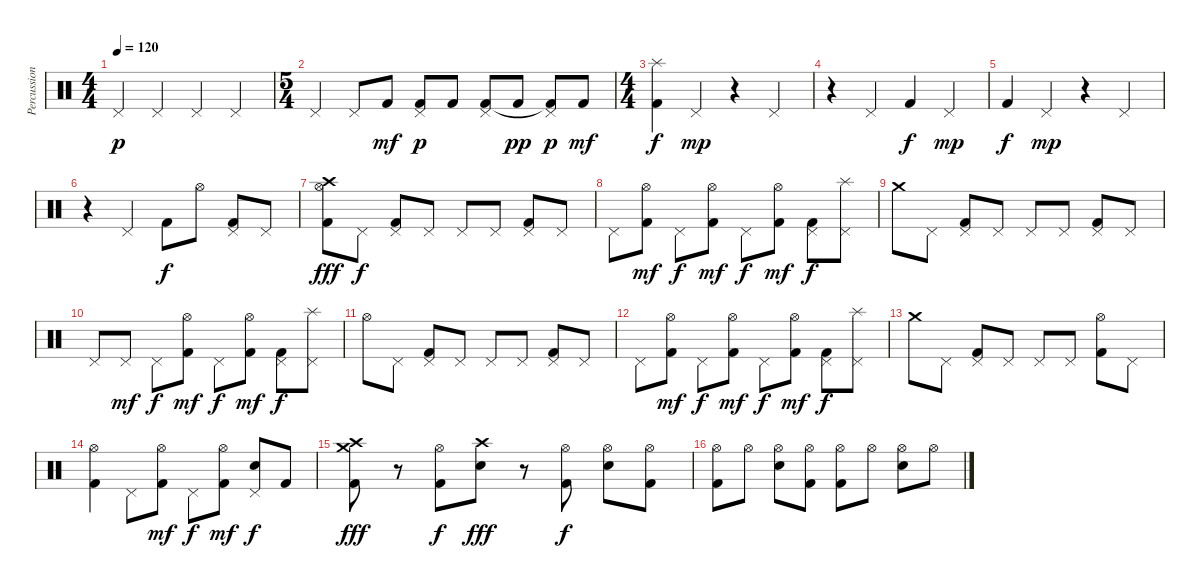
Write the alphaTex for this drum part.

\track ("Percussion" "Percussion") {instrument percussion}
\staff {score}
\articulation defaults
\ts (4 4)
\tempo 120
\clef neutral
\ks c "Pedal Hi-Hat (hit)".4{dy p} "Pedal Hi-Hat (hit)".4 "Pedal Hi-Hat (hit)".4 "Pedal Hi-Hat (hit)".4
|
\ts (5 4)
"Pedal Hi-Hat (hit)".4 "Pedal Hi-Hat (hit)".8 "Kick (hit) 2".8{dy mf} ("Pedal Hi-Hat (hit)" "Kick (hit) 2").8{dy p} "Kick (hit) 2".8 ("Pedal Hi-Hat (hit)" "Kick (hit) 2").8 "Kick (hit) 2".8{dy pp} ("Pedal Hi-Hat (hit)" "Kick (hit) 2"{t}).8{dy p} "Kick (hit) 2".8{dy mf} |
\ts (4 4)
("Splash (hit)" "Kick (hit) 2").4{dy f} "Pedal Hi-Hat (hit)".4{dy mp} r.4 "Pedal Hi-Hat (hit)".4 |
r.4 "Pedal Hi-Hat (hit)".4 "Kick (hit) 2".4{dy f} "Pedal Hi-Hat (hit)".4{dy mp} |
"Kick (hit) 2".4{dy f} "Pedal Hi-Hat (hit)".4{dy mp} r.4 "Pedal Hi-Hat (hit)".4 |
r.4 "Pedal Hi-Hat (hit)".4 "Kick (hit) 2".8{dy f} "Hi-Hat (open)".8 ("Pedal Hi-Hat (hit)" "Kick (hit) 2").8 "Pedal Hi-Hat (hit)".8 |
("Crash high (hit)" "Hi-Hat (open)" "Kick (hit) 2").8{dy fff} "Pedal Hi-Hat (hit)".8{dy f} ("Pedal Hi-Hat (hit)" "Kick (hit) 2").8 "Pedal Hi-Hat (hit)".8 "Pedal Hi-Hat (hit)".8 "Pedal Hi-Hat (hit)".8 ("Pedal Hi-Hat (hit)" "Kick (hit) 2").8 "Pedal Hi-Hat (hit)".8 |
"Pedal Hi-Hat (hit)".8 ("Hi-Hat (open)" "Kick (hit) 2").8{dy mf} "Pedal Hi-Hat (hit)".8{dy f} ("Hi-Hat (open)" "Kick (hit) 2").8{dy mf} "Pedal Hi-Hat (hit)".8{dy f} ("Hi-Hat (open)" "Kick (hit) 2").8{dy mf} ("Pedal Hi-Hat (hit)" "Kick (hit) 2").8{dy f} ("Splash (hit)" "Pedal Hi-Hat (hit)").8 |
"Crash medium (hit)".8 "Pedal Hi-Hat (hit)".8 ("Pedal Hi-Hat (hit)" "Kick (hit) 2").8 "Pedal Hi-Hat (hit)".8 "Pedal Hi-Hat (hit)".8 "Pedal Hi-Hat (hit)".8 ("Pedal Hi-Hat (hit)" "Kick (hit) 2").8 "Pedal Hi-Hat (hit)".8 |
"Pedal Hi-Hat (hit)".8 "Pedal Hi-Hat (hit)".8{dy mf} "Pedal Hi-Hat (hit)".8{dy f} ("Hi-Hat (open)" "Kick (hit) 2").8{dy mf} "Pedal Hi-Hat (hit)".8{dy f} ("Hi-Hat (open)" "Kick (hit) 2").8{dy mf} ("Pedal Hi-Hat (hit)" "Kick (hit) 2").8{dy f} ("Splash (hit)" "Pedal Hi-Hat (hit)").8 |
"Hi-Hat (open)".8 "Pedal Hi-Hat (hit)".8 ("Pedal Hi-Hat (hit)" "Kick (hit) 2").8 "Pedal Hi-Hat (hit)".8 "Pedal Hi-Hat (hit)".8 "Pedal Hi-Hat (hit)".8 ("Pedal Hi-Hat (hit)" "Kick (hit) 2").8 "Pedal Hi-Hat (hit)".8 |
"Pedal Hi-Hat (hit)".8 ("Hi-Hat (open)" "Kick (hit) 2").8{dy mf} "Pedal Hi-Hat (hit)".8{dy f} ("Hi-Hat (open)" "Kick (hit) 2").8{dy mf} "Pedal Hi-Hat (hit)".8{dy f} ("Hi-Hat (open)" "Kick (hit) 2").8{dy mf} ("Pedal Hi-Hat (hit)" "Kick (hit) 2").8{dy f} ("Splash (hit)" "Pedal Hi-Hat (hit)").8 |
"Crash medium (hit)".8 "Pedal Hi-Hat (hit)".8 ("Pedal Hi-Hat (hit)" "Kick (hit) 2").8 "Pedal Hi-Hat (hit)".8 "Pedal Hi-Hat (hit)".8 "Pedal Hi-Hat (hit)".8 ("Hi-Hat (open)" "Kick (hit) 2").8 "Pedal Hi-Hat (hit)".8 |
("Hi-Hat (open)" "Kick (hit) 2").4 "Pedal Hi-Hat (hit)".8 ("Hi-Hat (open)" "Kick (hit) 2").8{dy mf} "Pedal Hi-Hat (hit)".8{dy f} ("Hi-Hat (open)" "Kick (hit) 2").8{dy mf} ("Pedal Hi-Hat (hit)" "Electric Snare (hit)").8{dy f} "Kick (hit) 2".8 |
("Crash high (hit)" "Crash medium (hit)" "Kick (hit) 2").8{dy fff} r.8 ("Hi-Hat (open)" "Kick (hit) 2").8{dy f} ("Crash high (hit)" "Electric Snare (hit)").8{dy fff} r.8 ("Hi-Hat (open)" "Kick (hit) 2").8{dy f} ("Hi-Hat (open)" "Electric Snare (hit)").8 ("Hi-Hat (open)" "Kick (hit) 2").8 |
("Hi-Hat (open)" "Kick (hit) 2").8 "Hi-Hat (open)".8 ("Hi-Hat (open)" "Electric Snare (hit)").8 ("Hi-Hat (open)" "Kick (hit) 2").8 ("Hi-Hat (open)" "Kick (hit) 2").8 "Hi-Hat (open)".8 ("Hi-Hat (open)" "Electric Snare (hit)").8 "Hi-Hat (open)".8
